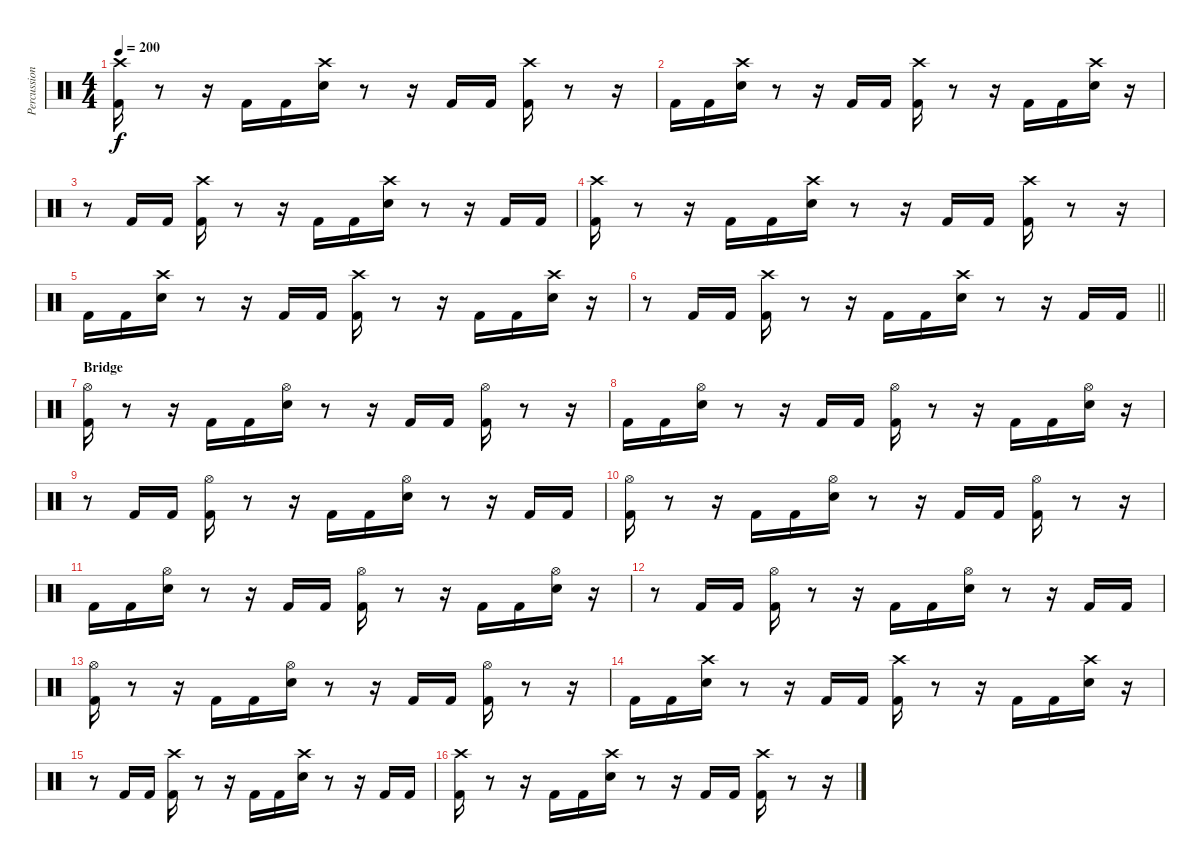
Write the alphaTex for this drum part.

\track ("Percussion" "Percussion") {instrument percussion}
\staff {score}
\articulation defaults
\ts (4 4)
\tempo 200
\clef neutral
\ks c
("Crash high (hit)" "Kick (hit) 2").16{dy f} r.8 r.16 "Kick (hit) 2".16 "Kick (hit) 2".16 ("Crash high (hit)" "Electric Snare (hit)").16 r.8 r.16 "Kick (hit) 2".16 "Kick (hit) 2".16 ("Crash high (hit)" "Kick (hit) 2").16 r.8 r.16 |
"Kick (hit) 2".16 "Kick (hit) 2".16 ("Crash high (hit)" "Electric Snare (hit)").16 r.8 r.16 "Kick (hit) 2".16 "Kick (hit) 2".16 ("Crash high (hit)" "Kick (hit) 2").16 r.8 r.16 "Kick (hit) 2".16 "Kick (hit) 2".16 ("Crash high (hit)" "Electric Snare (hit)").16 r.16 |
r.8 "Kick (hit) 2".16 "Kick (hit) 2".16 ("Crash high (hit)" "Kick (hit) 2").16 r.8 r.16 "Kick (hit) 2".16 "Kick (hit) 2".16 ("Crash high (hit)" "Electric Snare (hit)").16 r.8 r.16 "Kick (hit) 2".16 "Kick (hit) 2".16 |
("Crash high (hit)" "Kick (hit) 2").16 r.8 r.16 "Kick (hit) 2".16 "Kick (hit) 2".16 ("Crash high (hit)" "Electric Snare (hit)").16 r.8 r.16 "Kick (hit) 2".16 "Kick (hit) 2".16 ("Crash high (hit)" "Kick (hit) 2").16 r.8 r.16 |
"Kick (hit) 2".16 "Kick (hit) 2".16 ("Crash high (hit)" "Electric Snare (hit)").16 r.8 r.16 "Kick (hit) 2".16 "Kick (hit) 2".16 ("Crash high (hit)" "Kick (hit) 2").16 r.8 r.16 "Kick (hit) 2".16 "Kick (hit) 2".16 ("Crash high (hit)" "Electric Snare (hit)").16 r.16 |
\barLineRight lightlight
r.8 "Kick (hit) 2".16 "Kick (hit) 2".16 ("Crash high (hit)" "Kick (hit) 2").16 r.8 r.16 "Kick (hit) 2".16 "Kick (hit) 2".16 ("Crash high (hit)" "Electric Snare (hit)").16 r.8 r.16 "Kick (hit) 2".16 "Kick (hit) 2".16 |
\section ("" "Bridge")
("Hi-Hat (open)" "Kick (hit) 2").16 r.8 r.16 "Kick (hit) 2".16 "Kick (hit) 2".16 ("Hi-Hat (open)" "Electric Snare (hit)").16 r.8 r.16 "Kick (hit) 2".16 "Kick (hit) 2".16 ("Hi-Hat (open)" "Kick (hit) 2").16 r.8 r.16 |
"Kick (hit) 2".16 "Kick (hit) 2".16 ("Hi-Hat (open)" "Electric Snare (hit)").16 r.8 r.16 "Kick (hit) 2".16 "Kick (hit) 2".16 ("Hi-Hat (open)" "Kick (hit) 2").16 r.8 r.16 "Kick (hit) 2".16 "Kick (hit) 2".16 ("Hi-Hat (open)" "Electric Snare (hit)").16 r.16 |
r.8 "Kick (hit) 2".16 "Kick (hit) 2".16 ("Hi-Hat (open)" "Kick (hit) 2").16 r.8 r.16 "Kick (hit) 2".16 "Kick (hit) 2".16 ("Hi-Hat (open)" "Electric Snare (hit)").16 r.8 r.16 "Kick (hit) 2".16 "Kick (hit) 2".16 |
("Hi-Hat (open)" "Kick (hit) 2").16 r.8 r.16 "Kick (hit) 2".16 "Kick (hit) 2".16 ("Hi-Hat (open)" "Electric Snare (hit)").16 r.8 r.16 "Kick (hit) 2".16 "Kick (hit) 2".16 ("Hi-Hat (open)" "Kick (hit) 2").16 r.8 r.16 |
"Kick (hit) 2".16 "Kick (hit) 2".16 ("Hi-Hat (open)" "Electric Snare (hit)").16 r.8 r.16 "Kick (hit) 2".16 "Kick (hit) 2".16 ("Hi-Hat (open)" "Kick (hit) 2").16 r.8 r.16 "Kick (hit) 2".16 "Kick (hit) 2".16 ("Hi-Hat (open)" "Electric Snare (hit)").16 r.16 |
r.8 "Kick (hit) 2".16 "Kick (hit) 2".16 ("Hi-Hat (open)" "Kick (hit) 2").16 r.8 r.16 "Kick (hit) 2".16 "Kick (hit) 2".16 ("Hi-Hat (open)" "Electric Snare (hit)").16 r.8 r.16 "Kick (hit) 2".16 "Kick (hit) 2".16 |
("Hi-Hat (open)" "Kick (hit) 2").16 r.8 r.16 "Kick (hit) 2".16 "Kick (hit) 2".16 ("Hi-Hat (open)" "Electric Snare (hit)").16 r.8 r.16 "Kick (hit) 2".16 "Kick (hit) 2".16 ("Hi-Hat (open)" "Kick (hit) 2").16 r.8 r.16 |
"Kick (hit) 2".16 "Kick (hit) 2".16 ("Crash high (hit)" "Electric Snare (hit)").16 r.8 r.16 "Kick (hit) 2".16 "Kick (hit) 2".16 ("Crash high (hit)" "Kick (hit) 2").16 r.8 r.16 "Kick (hit) 2".16 "Kick (hit) 2".16 ("Crash high (hit)" "Electric Snare (hit)").16 r.16 |
r.8 "Kick (hit) 2".16 "Kick (hit) 2".16 ("Crash high (hit)" "Kick (hit) 2").16 r.8 r.16 "Kick (hit) 2".16 "Kick (hit) 2".16 ("Crash high (hit)" "Electric Snare (hit)").16 r.8 r.16 "Kick (hit) 2".16 "Kick (hit) 2".16 |
("Crash high (hit)" "Kick (hit) 2").16 r.8 r.16 "Kick (hit) 2".16 "Kick (hit) 2".16 ("Crash high (hit)" "Electric Snare (hit)").16 r.8 r.16 "Kick (hit) 2".16 "Kick (hit) 2".16 ("Crash high (hit)" "Kick (hit) 2").16 r.8 r.16
